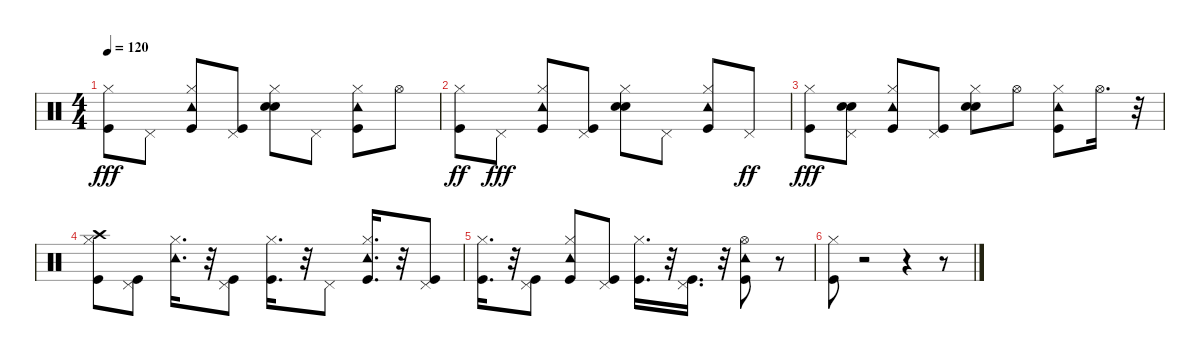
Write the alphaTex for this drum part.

\track "" {instrument percussion}
\staff {score}
\articulation defaults
\ts (4 4)
\tempo 120
\clef neutral
\ks c
("Kick (hit)" "Hi-Hat (closed)").8{dy fff} "Pedal Hi-Hat (hit)".8 ("Tambourine (hit)" "Hi-Hat (closed)" "Kick (hit)").8 ("Kick (hit)" "Pedal Hi-Hat (hit)").8 ("Hi-Hat (closed)" "Hand Clap (hit)" "Snare (hit) 2").8 "Pedal Hi-Hat (hit)".8 ("Tambourine (hit)" "Hi-Hat (closed)" "Kick (hit)").8 "Hi-Hat (open)".8 |
("Kick (hit)" "Hi-Hat (closed)").8{dy ff} "Pedal Hi-Hat (hit)".8{dy fff} ("Kick (hit)" "Hi-Hat (closed)" "Tambourine (hit)").8 ("Kick (hit)" "Pedal Hi-Hat (hit)").8 ("Hand Clap (hit)" "Hi-Hat (closed)" "Snare (hit) 2").8 "Pedal Hi-Hat (hit)".8 ("Tambourine (hit)" "Kick (hit)" "Hi-Hat (closed)").8 "Pedal Hi-Hat (hit)".8{dy ff} |
("Hi-Hat (closed)" "Kick (hit)").8{dy fff} ("Pedal Hi-Hat (hit)" "Hand Clap (hit)" "Snare (hit) 2").8 ("Tambourine (hit)" "Hi-Hat (closed)" "Kick (hit)").8 ("Pedal Hi-Hat (hit)" "Kick (hit)").8 ("Hi-Hat (closed)" "Hand Clap (hit)" "Snare (hit) 2").8 "Hi-Hat (open)".8 ("Tambourine (hit)" "Hi-Hat (closed)" "Kick (hit)").8 "Hi-Hat (open)".16{d} r.32 |
("Crash high (hit)" "Hi-Hat (closed)" "Kick (hit)").8 ("Pedal Hi-Hat (hit)" "Kick (hit)").8 ("Hi-Hat (closed)" "Tambourine (hit)").16{d} r.32 ("Pedal Hi-Hat (hit)" "Kick (hit)").8 ("Hi-Hat (closed)" "Kick (hit)").16{d} r.32 "Pedal Hi-Hat (hit)".8 ("Tambourine (hit)" "Kick (hit)" "Hi-Hat (closed)").16{d} r.32 ("Pedal Hi-Hat (hit)" "Kick (hit)").8 |
("Kick (hit)" "Hi-Hat (closed)").16{d} r.32 ("Pedal Hi-Hat (hit)" "Kick (hit)").8 ("Tambourine (hit)" "Kick (hit)" "Hi-Hat (closed)").8 ("Kick (hit)" "Pedal Hi-Hat (hit)").8 ("Hi-Hat (closed)" "Kick (hit)").16{d} r.32 ("Pedal Hi-Hat (hit)" "Kick (hit)").16{d} r.32 ("Hi-Hat (open)" "Kick (hit)" "Tambourine (hit)").8 r.8 |
("Hi-Hat (closed)" "Kick (hit)").8 r.2 r.4 r.8
